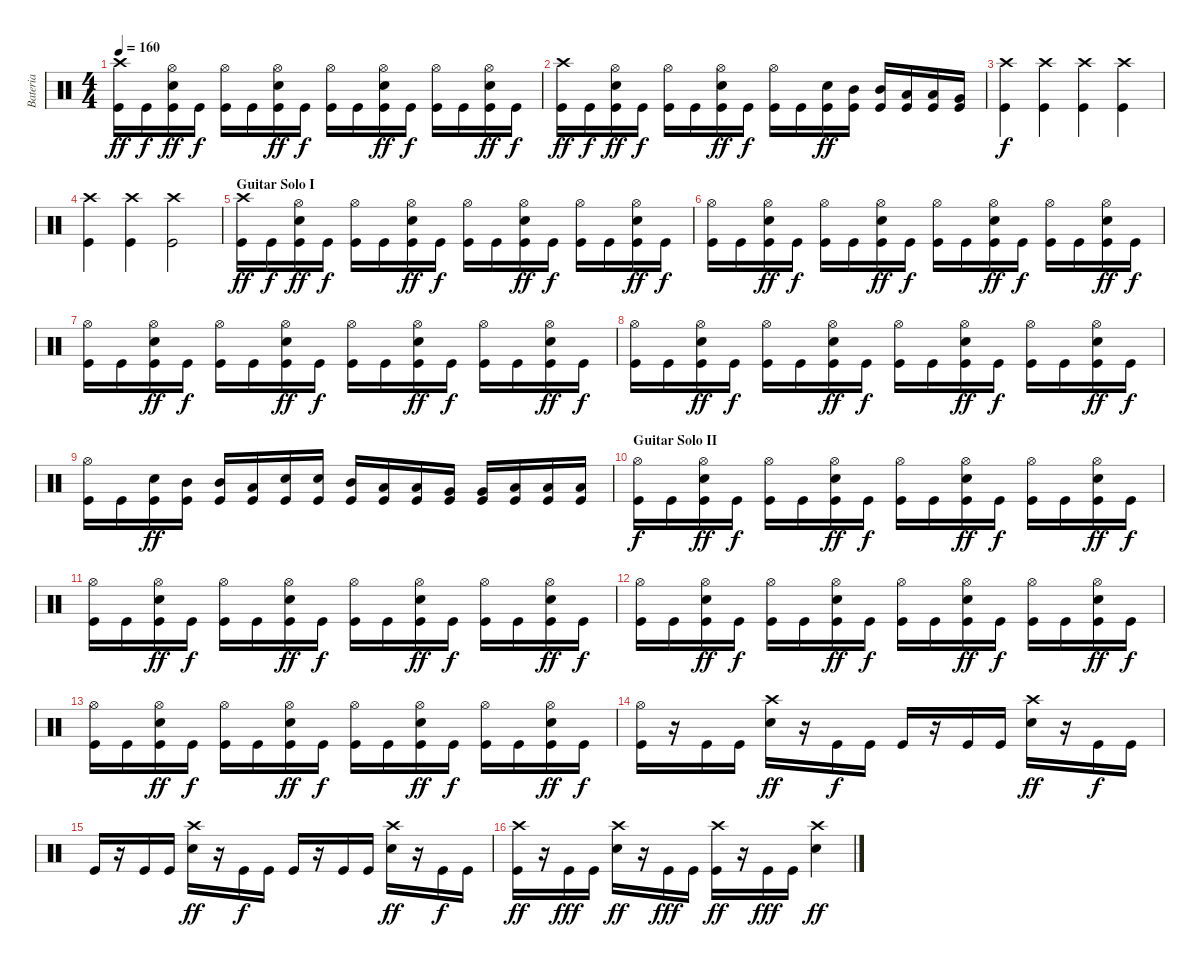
\track ("Bateria" "Bateria") {instrument percussion}
\staff {score}
\articulation defaults
\ts (4 4)
\tempo 160
\clef neutral
\ks c
("Kick (hit)" "Crash high (hit)").16{dy ff} "Kick (hit)".16{dy f} ("Kick (hit)" "Electric Snare (hit)" "Hi-Hat (open)").16{dy ff} "Kick (hit)".16{dy f} ("Kick (hit)" "Hi-Hat (open)").16 "Kick (hit)".16 ("Kick (hit)" "Electric Snare (hit)" "Hi-Hat (open)").16{dy ff} "Kick (hit)".16{dy f} ("Kick (hit)" "Hi-Hat (open)").16 "Kick (hit)".16 ("Kick (hit)" "Electric Snare (hit)" "Hi-Hat (open)").16{dy ff} "Kick (hit)".16{dy f} ("Kick (hit)" "Hi-Hat (open)").16 "Kick (hit)".16 ("Kick (hit)" "Electric Snare (hit)" "Hi-Hat (open)").16{dy ff} "Kick (hit)".16{dy f} |
("Kick (hit)" "Crash high (hit)").16{dy ff} "Kick (hit)".16{dy f} ("Kick (hit)" "Electric Snare (hit)" "Hi-Hat (open)").16{dy ff} "Kick (hit)".16{dy f} ("Kick (hit)" "Hi-Hat (open)").16 "Kick (hit)".16 ("Kick (hit)" "Electric Snare (hit)" "Hi-Hat (open)").16{dy ff} "Kick (hit)".16{dy f} ("Kick (hit)" "Hi-Hat (open)").16 "Kick (hit)".16 ("Kick (hit)" "Electric Snare (hit)").16{dy ff} ("Kick (hit)" "Mid Tom (hit)").16 ("Kick (hit)" "Mid Tom (hit)").16 ("Kick (hit)" "Low Tom (hit)").16 ("Kick (hit)" "Low Tom (hit)").16 ("Kick (hit)" "Very Low Tom (hit)").16 |
("Kick (hit)" "Crash high (hit)").4{dy f} ("Kick (hit)" "Crash high (hit)").4 ("Kick (hit)" "Crash high (hit)").4 ("Kick (hit)" "Crash high (hit)").4 |
("Kick (hit)" "Crash high (hit)").4 ("Kick (hit)" "Crash high (hit)").4 ("Kick (hit)" "Crash high (hit)").2 |
\section ("" "Guitar Solo I")
("Kick (hit)" "Crash high (hit)").16{dy ff} "Kick (hit)".16{dy f} ("Kick (hit)" "Electric Snare (hit)" "Hi-Hat (open)").16{dy ff} "Kick (hit)".16{dy f} ("Kick (hit)" "Hi-Hat (open)").16 "Kick (hit)".16 ("Kick (hit)" "Electric Snare (hit)" "Hi-Hat (open)").16{dy ff} "Kick (hit)".16{dy f} ("Kick (hit)" "Hi-Hat (open)").16 "Kick (hit)".16 ("Kick (hit)" "Electric Snare (hit)" "Hi-Hat (open)").16{dy ff} "Kick (hit)".16{dy f} ("Kick (hit)" "Hi-Hat (open)").16 "Kick (hit)".16 ("Kick (hit)" "Electric Snare (hit)" "Hi-Hat (open)").16{dy ff} "Kick (hit)".16{dy f} |
("Kick (hit)" "Hi-Hat (open)").16 "Kick (hit)".16 ("Kick (hit)" "Electric Snare (hit)" "Hi-Hat (open)").16{dy ff} "Kick (hit)".16{dy f} ("Kick (hit)" "Hi-Hat (open)").16 "Kick (hit)".16 ("Kick (hit)" "Electric Snare (hit)" "Hi-Hat (open)").16{dy ff} "Kick (hit)".16{dy f} ("Kick (hit)" "Hi-Hat (open)").16 "Kick (hit)".16 ("Kick (hit)" "Electric Snare (hit)" "Hi-Hat (open)").16{dy ff} "Kick (hit)".16{dy f} ("Kick (hit)" "Hi-Hat (open)").16 "Kick (hit)".16 ("Kick (hit)" "Electric Snare (hit)" "Hi-Hat (open)").16{dy ff} "Kick (hit)".16{dy f} |
("Kick (hit)" "Hi-Hat (open)").16 "Kick (hit)".16 ("Kick (hit)" "Electric Snare (hit)" "Hi-Hat (open)").16{dy ff} "Kick (hit)".16{dy f} ("Kick (hit)" "Hi-Hat (open)").16 "Kick (hit)".16 ("Kick (hit)" "Electric Snare (hit)" "Hi-Hat (open)").16{dy ff} "Kick (hit)".16{dy f} ("Kick (hit)" "Hi-Hat (open)").16 "Kick (hit)".16 ("Kick (hit)" "Electric Snare (hit)" "Hi-Hat (open)").16{dy ff} "Kick (hit)".16{dy f} ("Kick (hit)" "Hi-Hat (open)").16 "Kick (hit)".16 ("Kick (hit)" "Electric Snare (hit)" "Hi-Hat (open)").16{dy ff} "Kick (hit)".16{dy f} |
("Kick (hit)" "Hi-Hat (open)").16 "Kick (hit)".16 ("Kick (hit)" "Electric Snare (hit)" "Hi-Hat (open)").16{dy ff} "Kick (hit)".16{dy f} ("Kick (hit)" "Hi-Hat (open)").16 "Kick (hit)".16 ("Kick (hit)" "Electric Snare (hit)" "Hi-Hat (open)").16{dy ff} "Kick (hit)".16{dy f} ("Kick (hit)" "Hi-Hat (open)").16 "Kick (hit)".16 ("Kick (hit)" "Electric Snare (hit)" "Hi-Hat (open)").16{dy ff} "Kick (hit)".16{dy f} ("Kick (hit)" "Hi-Hat (open)").16 "Kick (hit)".16 ("Kick (hit)" "Electric Snare (hit)" "Hi-Hat (open)").16{dy ff} "Kick (hit)".16{dy f} |
("Kick (hit)" "Hi-Hat (open)").16 "Kick (hit)".16 ("Kick (hit)" "Electric Snare (hit)").16{dy ff} ("Kick (hit)" "Mid Tom (hit)").16 ("Kick (hit)" "Mid Tom (hit)").16 ("Kick (hit)" "Low Tom (hit)").16 ("Kick (hit)" "Electric Snare (hit)").16 ("Kick (hit)" "Electric Snare (hit)").16 ("Kick (hit)" "Mid Tom (hit)").16 ("Kick (hit)" "Low Tom (hit)").16 ("Kick (hit)" "Low Tom (hit)").16 ("Kick (hit)" "Very Low Tom (hit)").16 ("Kick (hit)" "Very Low Tom (hit)").16 ("Kick (hit)" "Low Floor Tom (hit)").16 ("Kick (hit)" "Low Floor Tom (hit)").16 ("Kick (hit)" "Low Floor Tom (hit)").16 |
\section ("" "Guitar Solo II")
("Kick (hit)" "Hi-Hat (open)").16{dy f} "Kick (hit)".16 ("Kick (hit)" "Electric Snare (hit)" "Hi-Hat (open)").16{dy ff} "Kick (hit)".16{dy f} ("Kick (hit)" "Hi-Hat (open)").16 "Kick (hit)".16 ("Kick (hit)" "Electric Snare (hit)" "Hi-Hat (open)").16{dy ff} "Kick (hit)".16{dy f} ("Kick (hit)" "Hi-Hat (open)").16 "Kick (hit)".16 ("Kick (hit)" "Electric Snare (hit)" "Hi-Hat (open)").16{dy ff} "Kick (hit)".16{dy f} ("Kick (hit)" "Hi-Hat (open)").16 "Kick (hit)".16 ("Kick (hit)" "Electric Snare (hit)" "Hi-Hat (open)").16{dy ff} "Kick (hit)".16{dy f} |
("Kick (hit)" "Hi-Hat (open)").16 "Kick (hit)".16 ("Kick (hit)" "Electric Snare (hit)" "Hi-Hat (open)").16{dy ff} "Kick (hit)".16{dy f} ("Kick (hit)" "Hi-Hat (open)").16 "Kick (hit)".16 ("Kick (hit)" "Electric Snare (hit)" "Hi-Hat (open)").16{dy ff} "Kick (hit)".16{dy f} ("Kick (hit)" "Hi-Hat (open)").16 "Kick (hit)".16 ("Kick (hit)" "Electric Snare (hit)" "Hi-Hat (open)").16{dy ff} "Kick (hit)".16{dy f} ("Kick (hit)" "Hi-Hat (open)").16 "Kick (hit)".16 ("Kick (hit)" "Electric Snare (hit)" "Hi-Hat (open)").16{dy ff} "Kick (hit)".16{dy f} |
("Kick (hit)" "Hi-Hat (open)").16 "Kick (hit)".16 ("Kick (hit)" "Electric Snare (hit)" "Hi-Hat (open)").16{dy ff} "Kick (hit)".16{dy f} ("Kick (hit)" "Hi-Hat (open)").16 "Kick (hit)".16 ("Kick (hit)" "Electric Snare (hit)" "Hi-Hat (open)").16{dy ff} "Kick (hit)".16{dy f} ("Kick (hit)" "Hi-Hat (open)").16 "Kick (hit)".16 ("Kick (hit)" "Electric Snare (hit)" "Hi-Hat (open)").16{dy ff} "Kick (hit)".16{dy f} ("Kick (hit)" "Hi-Hat (open)").16 "Kick (hit)".16 ("Kick (hit)" "Electric Snare (hit)" "Hi-Hat (open)").16{dy ff} "Kick (hit)".16{dy f} |
("Kick (hit)" "Hi-Hat (open)").16 "Kick (hit)".16 ("Kick (hit)" "Electric Snare (hit)" "Hi-Hat (open)").16{dy ff} "Kick (hit)".16{dy f} ("Kick (hit)" "Hi-Hat (open)").16 "Kick (hit)".16 ("Kick (hit)" "Electric Snare (hit)" "Hi-Hat (open)").16{dy ff} "Kick (hit)".16{dy f} ("Kick (hit)" "Hi-Hat (open)").16 "Kick (hit)".16 ("Kick (hit)" "Electric Snare (hit)" "Hi-Hat (open)").16{dy ff} "Kick (hit)".16{dy f} ("Kick (hit)" "Hi-Hat (open)").16 "Kick (hit)".16 ("Kick (hit)" "Electric Snare (hit)" "Hi-Hat (open)").16{dy ff} "Kick (hit)".16{dy f} |
("Kick (hit)" "Hi-Hat (open)").16 r.16 "Kick (hit)".16 "Kick (hit)".16 ("Electric Snare (hit)" "Crash high (hit)").16{dy ff} r.16 "Kick (hit)".16{dy f} "Kick (hit)".16 "Kick (hit)".16 r.16 "Kick (hit)".16 "Kick (hit)".16 ("Electric Snare (hit)" "Crash high (hit)").16{dy ff} r.16 "Kick (hit)".16{dy f} "Kick (hit)".16 |
"Kick (hit)".16 r.16 "Kick (hit)".16 "Kick (hit)".16 ("Electric Snare (hit)" "Crash high (hit)").16{dy ff} r.16 "Kick (hit)".16{dy f} "Kick (hit)".16 "Kick (hit)".16 r.16 "Kick (hit)".16 "Kick (hit)".16 ("Electric Snare (hit)" "Crash high (hit)").16{dy ff} r.16 "Kick (hit)".16{dy f} "Kick (hit)".16 |
("Kick (hit)" "Crash high (hit)").16{dy ff} r.16 "Kick (hit)".16{dy fff} "Kick (hit)".16 ("Electric Snare (hit)" "Crash high (hit)").16{dy ff} r.16 "Kick (hit)".16{dy fff} "Kick (hit)".16 ("Kick (hit)" "Crash high (hit)").16{dy ff} r.16 "Kick (hit)".16{dy fff} "Kick (hit)".16 ("Electric Snare (hit)" "Crash high (hit)").4{dy ff}
